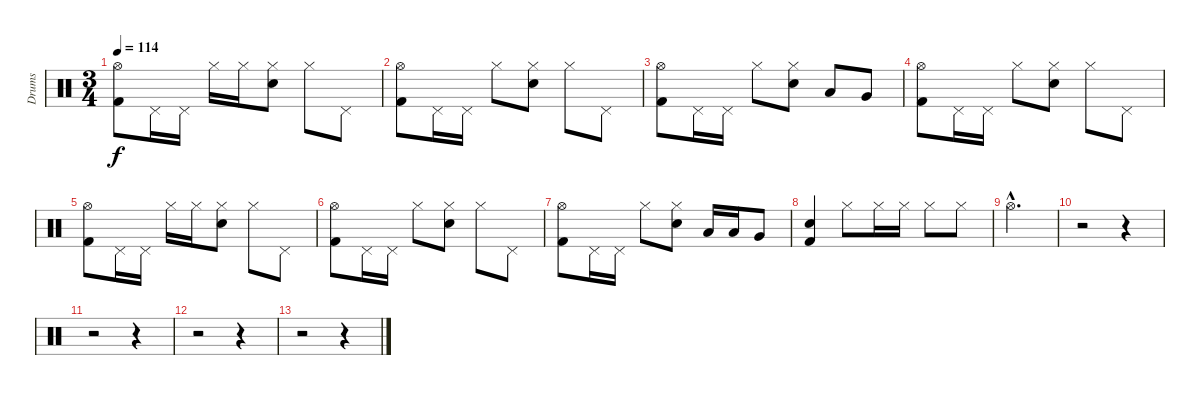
\track ("Drums" "Drums") {instrument percussion}
\staff {score}
\articulation defaults
\ts (3 4)
\tempo 114
\clef neutral
\ks c
("Hi-Hat (open)" "Kick (hit) 2").8{dy f} "Pedal Hi-Hat (hit)".16 "Pedal Hi-Hat (hit)".16 "Hi-Hat (closed)".16 "Hi-Hat (closed)".16 ("Hi-Hat (closed)" "Electric Snare (hit)").8 "Hi-Hat (closed)".8 "Pedal Hi-Hat (hit)".8 |
("Hi-Hat (open)" "Kick (hit) 2").8 "Pedal Hi-Hat (hit)".16 "Pedal Hi-Hat (hit)".16 "Hi-Hat (closed)".8 ("Hi-Hat (closed)" "Electric Snare (hit)").8 "Hi-Hat (closed)".8 "Pedal Hi-Hat (hit)".8 |
("Hi-Hat (open)" "Kick (hit) 2").8 "Pedal Hi-Hat (hit)".16 "Pedal Hi-Hat (hit)".16 "Hi-Hat (closed)".8 ("Hi-Hat (closed)" "Electric Snare (hit)").8 "Low Tom (hit)".8 "Very Low Tom (hit)".8 |
("Hi-Hat (open)" "Kick (hit) 2").8 "Pedal Hi-Hat (hit)".16 "Pedal Hi-Hat (hit)".16 "Hi-Hat (closed)".8 ("Hi-Hat (closed)" "Electric Snare (hit)").8 "Hi-Hat (closed)".8 "Pedal Hi-Hat (hit)".8 |
("Hi-Hat (open)" "Kick (hit) 2").8 "Pedal Hi-Hat (hit)".16 "Pedal Hi-Hat (hit)".16 "Hi-Hat (closed)".16 "Hi-Hat (closed)".16 ("Hi-Hat (closed)" "Electric Snare (hit)").8 "Hi-Hat (closed)".8 "Pedal Hi-Hat (hit)".8 |
("Hi-Hat (open)" "Kick (hit) 2").8 "Pedal Hi-Hat (hit)".16 "Pedal Hi-Hat (hit)".16 "Hi-Hat (closed)".8 ("Hi-Hat (closed)" "Electric Snare (hit)").8 "Hi-Hat (closed)".8 "Pedal Hi-Hat (hit)".8 |
("Hi-Hat (open)" "Kick (hit) 2").8 "Pedal Hi-Hat (hit)".16 "Pedal Hi-Hat (hit)".16 "Hi-Hat (closed)".8 ("Hi-Hat (closed)" "Electric Snare (hit)").8 "Low Tom (hit)".16 "Low Tom (hit)".16 "Very Low Tom (hit)".8 |
("Kick (hit) 2" "Electric Snare (hit)").4 "Hi-Hat (closed)".8 "Hi-Hat (closed)".16 "Hi-Hat (closed)".16 "Hi-Hat (closed)".8 "Hi-Hat (closed)".8 |
"Hi-Hat (open)"{hac}.2{d} |
r.2 r.4 |
r.2 r.4 |
r.2 r.4 |
r.2 r.4
